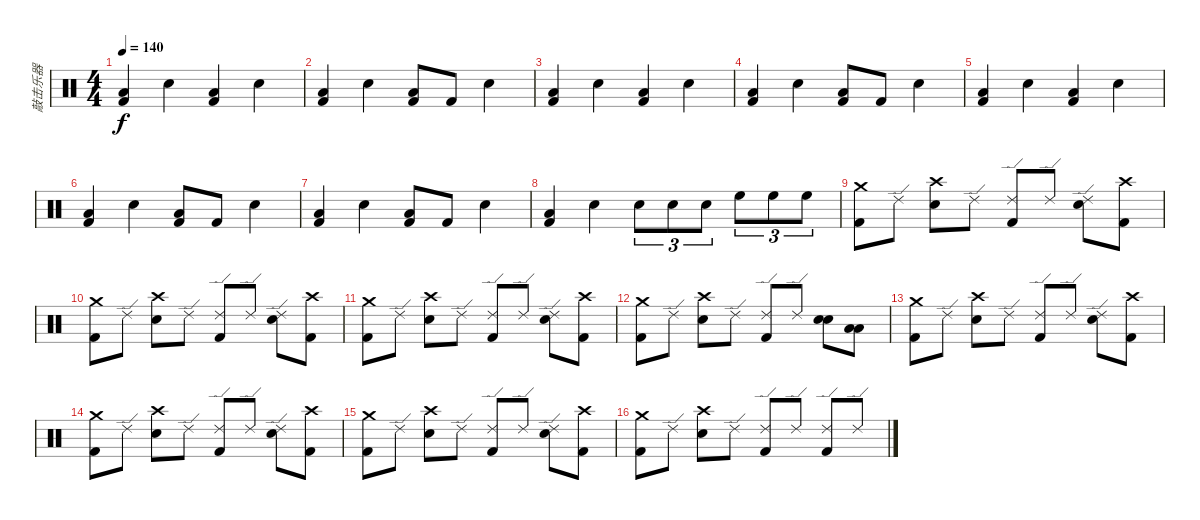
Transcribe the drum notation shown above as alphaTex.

\track ("敲击乐器" "敲击乐器") {instrument percussion}
\staff {score}
\articulation defaults
\ts (4 4)
\tempo 140
\clef neutral
\ks c
("Low Tom (hit)" "Kick (hit) 2").4{dy f} "Electric Snare (hit)".4 ("Low Tom (hit)" "Kick (hit) 2").4 "Electric Snare (hit)".4 |
("Low Tom (hit)" "Kick (hit) 2").4 "Electric Snare (hit)".4 ("Low Tom (hit)" "Kick (hit) 2").8 "Kick (hit) 2".8 "Electric Snare (hit)".4 |
("Low Tom (hit)" "Kick (hit) 2").4 "Electric Snare (hit)".4 ("Low Tom (hit)" "Kick (hit) 2").4 "Electric Snare (hit)".4 |
("Low Tom (hit)" "Kick (hit) 2").4 "Electric Snare (hit)".4 ("Low Tom (hit)" "Kick (hit) 2").8 "Kick (hit) 2".8 "Electric Snare (hit)".4 |
("Low Tom (hit)" "Kick (hit) 2").4 "Electric Snare (hit)".4 ("Low Tom (hit)" "Kick (hit) 2").4 "Electric Snare (hit)".4 |
("Low Tom (hit)" "Kick (hit) 2").4 "Electric Snare (hit)".4 ("Low Tom (hit)" "Kick (hit) 2").8 "Kick (hit) 2".8 "Electric Snare (hit)".4 |
("Low Tom (hit)" "Kick (hit) 2").4 "Electric Snare (hit)".4 ("Low Tom (hit)" "Kick (hit) 2").8 "Kick (hit) 2".8 "Electric Snare (hit)".4 |
("Low Tom (hit)" "Kick (hit) 2").4 "Electric Snare (hit)".4 "Snare (hit) 2".8{tu (3 2)} "Snare (hit) 2".8{tu (3 2)} "Snare (hit) 2".8{tu (3 2)} "High Floor Tom (hit)".8{tu (3 2)} "High Floor Tom (hit)".8{tu (3 2)} "High Floor Tom (hit)".8{tu (3 2)} |
("Crash medium (hit)" "Kick (hit) 2").8 "Ride (edge) 2".8 ("Crash high (hit)" "Snare (hit) 2").8 "Ride (edge) 2".8 ("Ride (edge) 2" "Kick (hit) 2").8 "Ride (edge) 2".8 ("Ride (edge) 2" "Snare (hit) 2").8 ("Crash high (hit)" "Kick (hit) 2").8 |
("Crash medium (hit)" "Kick (hit) 2").8 "Ride (edge) 2".8 ("Crash high (hit)" "Snare (hit) 2").8 "Ride (edge) 2".8 ("Ride (edge) 2" "Kick (hit) 2").8 "Ride (edge) 2".8 ("Ride (edge) 2" "Snare (hit) 2").8 ("Crash high (hit)" "Kick (hit) 2").8 |
("Crash medium (hit)" "Kick (hit) 2").8 "Ride (edge) 2".8 ("Crash high (hit)" "Snare (hit) 2").8 "Ride (edge) 2".8 ("Ride (edge) 2" "Kick (hit) 2").8 "Ride (edge) 2".8 ("Ride (edge) 2" "Snare (hit) 2").8 ("Crash high (hit)" "Kick (hit) 2").8 |
("Crash medium (hit)" "Kick (hit) 2").8 "Ride (edge) 2".8 ("Crash high (hit)" "Snare (hit) 2").8 "Ride (edge) 2".8 ("Ride (edge) 2" "Kick (hit) 2").8 "Ride (edge) 2".8 ("Snare (hit) 2" "Snare (hit) 2").8{bd 240} ("Low Tom (hit)" "Low Tom (hit)").8{bd 240} |
("Crash medium (hit)" "Kick (hit) 2").8 "Ride (edge) 2".8 ("Crash high (hit)" "Snare (hit) 2").8 "Ride (edge) 2".8 ("Ride (edge) 2" "Kick (hit) 2").8 "Ride (edge) 2".8 ("Ride (edge) 2" "Snare (hit) 2").8 ("Crash high (hit)" "Kick (hit) 2").8 |
("Crash medium (hit)" "Kick (hit) 2").8 "Ride (edge) 2".8 ("Crash high (hit)" "Snare (hit) 2").8 "Ride (edge) 2".8 ("Ride (edge) 2" "Kick (hit) 2").8 "Ride (edge) 2".8 ("Ride (edge) 2" "Snare (hit) 2").8 ("Crash high (hit)" "Kick (hit) 2").8 |
("Crash medium (hit)" "Kick (hit) 2").8 "Ride (edge) 2".8 ("Crash high (hit)" "Snare (hit) 2").8 "Ride (edge) 2".8 ("Ride (edge) 2" "Kick (hit) 2").8 "Ride (edge) 2".8 ("Ride (edge) 2" "Snare (hit) 2").8 ("Crash high (hit)" "Kick (hit) 2").8 |
("Crash medium (hit)" "Kick (hit) 2").8 "Ride (edge) 2".8 ("Crash high (hit)" "Snare (hit) 2").8 "Ride (edge) 2".8 ("Ride (edge) 2" "Kick (hit) 2").8 "Ride (edge) 2".8 ("Ride (edge) 2" "Kick (hit) 2").8 "Ride (edge) 2".8
